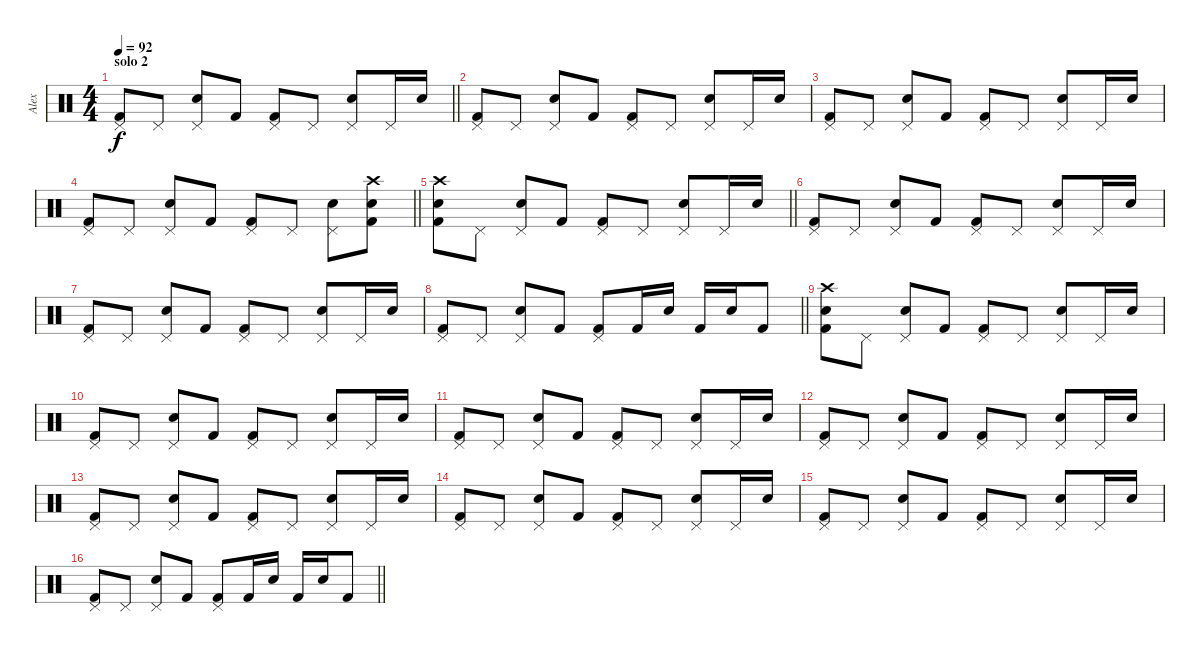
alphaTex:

\track ("Alex" "Alex") {instrument percussion}
\staff {score}
\articulation defaults
\ts (4 4)
\section ("" "solo 2")
\tempo 92
\clef neutral
\barLineRight lightlight
\ks c
("Pedal Hi-Hat (hit)" "Kick (hit) 2").8{dy f} "Pedal Hi-Hat (hit)".8 ("Pedal Hi-Hat (hit)" "Snare (hit) 2").8 "Kick (hit) 2".8 ("Pedal Hi-Hat (hit)" "Kick (hit) 2").8 "Pedal Hi-Hat (hit)".8 ("Pedal Hi-Hat (hit)" "Snare (hit) 2").8 "Pedal Hi-Hat (hit)".16 "Snare (hit) 2".16 |
("Pedal Hi-Hat (hit)" "Kick (hit) 2").8 "Pedal Hi-Hat (hit)".8 ("Pedal Hi-Hat (hit)" "Snare (hit) 2").8 "Kick (hit) 2".8 ("Pedal Hi-Hat (hit)" "Kick (hit) 2").8 "Pedal Hi-Hat (hit)".8 ("Pedal Hi-Hat (hit)" "Snare (hit) 2").8 "Pedal Hi-Hat (hit)".16 "Snare (hit) 2".16 |
("Pedal Hi-Hat (hit)" "Kick (hit) 2").8 "Pedal Hi-Hat (hit)".8 ("Pedal Hi-Hat (hit)" "Snare (hit) 2").8 "Kick (hit) 2".8 ("Pedal Hi-Hat (hit)" "Kick (hit) 2").8 "Pedal Hi-Hat (hit)".8 ("Pedal Hi-Hat (hit)" "Snare (hit) 2").8 "Pedal Hi-Hat (hit)".16 "Snare (hit) 2".16 |
\barLineRight lightlight
("Pedal Hi-Hat (hit)" "Kick (hit) 2").8 "Pedal Hi-Hat (hit)".8 ("Pedal Hi-Hat (hit)" "Snare (hit) 2").8 "Kick (hit) 2".8 ("Pedal Hi-Hat (hit)" "Kick (hit) 2").8 "Pedal Hi-Hat (hit)".8 ("Pedal Hi-Hat (hit)" "Snare (hit) 2").8 ("Crash high (hit)" "Snare (hit) 2" "Kick (hit) 2").8 |
\barLineRight lightlight
("Crash high (hit)" "Kick (hit) 2" "Snare (hit) 2").8 "Pedal Hi-Hat (hit)".8 ("Pedal Hi-Hat (hit)" "Snare (hit) 2").8 "Kick (hit) 2".8 ("Pedal Hi-Hat (hit)" "Kick (hit) 2").8 "Pedal Hi-Hat (hit)".8 ("Pedal Hi-Hat (hit)" "Snare (hit) 2").8 "Pedal Hi-Hat (hit)".16 "Snare (hit) 2".16 |
("Pedal Hi-Hat (hit)" "Kick (hit) 2").8 "Pedal Hi-Hat (hit)".8 ("Pedal Hi-Hat (hit)" "Snare (hit) 2").8 "Kick (hit) 2".8 ("Pedal Hi-Hat (hit)" "Kick (hit) 2").8 "Pedal Hi-Hat (hit)".8 ("Pedal Hi-Hat (hit)" "Snare (hit) 2").8 "Pedal Hi-Hat (hit)".16 "Snare (hit) 2".16 |
("Pedal Hi-Hat (hit)" "Kick (hit) 2").8 "Pedal Hi-Hat (hit)".8 ("Pedal Hi-Hat (hit)" "Snare (hit) 2").8 "Kick (hit) 2".8 ("Pedal Hi-Hat (hit)" "Kick (hit) 2").8 "Pedal Hi-Hat (hit)".8 ("Pedal Hi-Hat (hit)" "Snare (hit) 2").8 "Pedal Hi-Hat (hit)".16 "Snare (hit) 2".16 |
\barLineRight lightlight
("Pedal Hi-Hat (hit)" "Kick (hit) 2").8 "Pedal Hi-Hat (hit)".8 ("Pedal Hi-Hat (hit)" "Snare (hit) 2").8 "Kick (hit) 2".8 ("Pedal Hi-Hat (hit)" "Kick (hit) 2").8 "Kick (hit) 2".16 "Snare (hit) 2".16 "Kick (hit) 2".16 "Snare (hit) 2".16 "Kick (hit) 2".8 |
("Crash high (hit)" "Kick (hit) 2" "Snare (hit) 2").8 "Pedal Hi-Hat (hit)".8 ("Pedal Hi-Hat (hit)" "Snare (hit) 2").8 "Kick (hit) 2".8 ("Pedal Hi-Hat (hit)" "Kick (hit) 2").8 "Pedal Hi-Hat (hit)".8 ("Pedal Hi-Hat (hit)" "Snare (hit) 2").8 "Pedal Hi-Hat (hit)".16 "Snare (hit) 2".16 |
("Pedal Hi-Hat (hit)" "Kick (hit) 2").8 "Pedal Hi-Hat (hit)".8 ("Pedal Hi-Hat (hit)" "Snare (hit) 2").8 "Kick (hit) 2".8 ("Pedal Hi-Hat (hit)" "Kick (hit) 2").8 "Pedal Hi-Hat (hit)".8 ("Pedal Hi-Hat (hit)" "Snare (hit) 2").8 "Pedal Hi-Hat (hit)".16 "Snare (hit) 2".16 |
("Pedal Hi-Hat (hit)" "Kick (hit) 2").8 "Pedal Hi-Hat (hit)".8 ("Pedal Hi-Hat (hit)" "Snare (hit) 2").8 "Kick (hit) 2".8 ("Pedal Hi-Hat (hit)" "Kick (hit) 2").8 "Pedal Hi-Hat (hit)".8 ("Pedal Hi-Hat (hit)" "Snare (hit) 2").8 "Pedal Hi-Hat (hit)".16 "Snare (hit) 2".16 |
("Pedal Hi-Hat (hit)" "Kick (hit) 2").8 "Pedal Hi-Hat (hit)".8 ("Pedal Hi-Hat (hit)" "Snare (hit) 2").8 "Kick (hit) 2".8 ("Pedal Hi-Hat (hit)" "Kick (hit) 2").8 "Pedal Hi-Hat (hit)".8 ("Pedal Hi-Hat (hit)" "Snare (hit) 2").8 "Pedal Hi-Hat (hit)".16 "Snare (hit) 2".16 |
("Pedal Hi-Hat (hit)" "Kick (hit) 2").8 "Pedal Hi-Hat (hit)".8 ("Pedal Hi-Hat (hit)" "Snare (hit) 2").8 "Kick (hit) 2".8 ("Pedal Hi-Hat (hit)" "Kick (hit) 2").8 "Pedal Hi-Hat (hit)".8 ("Pedal Hi-Hat (hit)" "Snare (hit) 2").8 "Pedal Hi-Hat (hit)".16 "Snare (hit) 2".16 |
("Pedal Hi-Hat (hit)" "Kick (hit) 2").8 "Pedal Hi-Hat (hit)".8 ("Pedal Hi-Hat (hit)" "Snare (hit) 2").8 "Kick (hit) 2".8 ("Pedal Hi-Hat (hit)" "Kick (hit) 2").8 "Pedal Hi-Hat (hit)".8 ("Pedal Hi-Hat (hit)" "Snare (hit) 2").8 "Pedal Hi-Hat (hit)".16 "Snare (hit) 2".16 |
("Pedal Hi-Hat (hit)" "Kick (hit) 2").8 "Pedal Hi-Hat (hit)".8 ("Pedal Hi-Hat (hit)" "Snare (hit) 2").8 "Kick (hit) 2".8 ("Pedal Hi-Hat (hit)" "Kick (hit) 2").8 "Pedal Hi-Hat (hit)".8 ("Pedal Hi-Hat (hit)" "Snare (hit) 2").8 "Pedal Hi-Hat (hit)".16 "Snare (hit) 2".16 |
\barLineRight lightlight
("Pedal Hi-Hat (hit)" "Kick (hit) 2").8 "Pedal Hi-Hat (hit)".8 ("Pedal Hi-Hat (hit)" "Snare (hit) 2").8 "Kick (hit) 2".8 ("Pedal Hi-Hat (hit)" "Kick (hit) 2").8 "Kick (hit) 2".16 "Snare (hit) 2".16 "Kick (hit) 2".16 "Snare (hit) 2".16 "Kick (hit) 2".8
